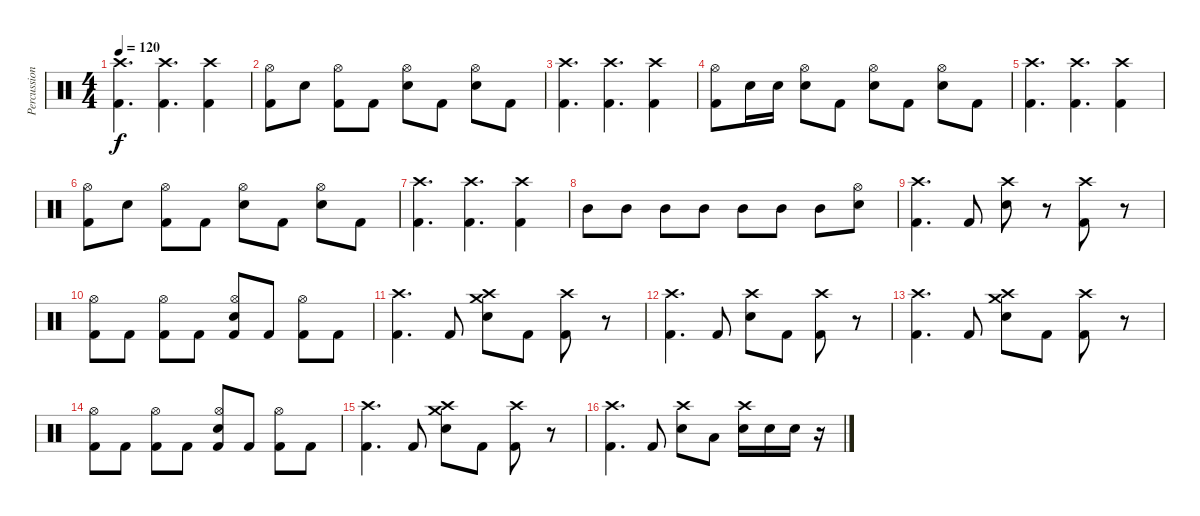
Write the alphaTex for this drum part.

\track ("Percussion" "Percussion") {instrument percussion}
\staff {score}
\articulation defaults
\ts (4 4)
\tempo 120
\clef neutral
\ks c
("Kick (hit) 2" "Crash high (hit)").4{d dy f} ("Kick (hit) 2" "Crash high (hit)").4{d} ("Kick (hit) 2" "Crash high (hit)").4 |
("Kick (hit) 2" "Hi-Hat (open)").8 "Electric Snare (hit)".8 ("Kick (hit) 2" "Hi-Hat (open)").8 "Kick (hit) 2".8 ("Electric Snare (hit)" "Hi-Hat (open)").8 "Kick (hit) 2".8 ("Electric Snare (hit)" "Hi-Hat (open)").8 "Kick (hit) 2".8 |
("Kick (hit) 2" "Crash high (hit)").4{d} ("Kick (hit) 2" "Crash high (hit)").4{d} ("Kick (hit) 2" "Crash high (hit)").4 |
("Kick (hit) 2" "Hi-Hat (open)").8 "Electric Snare (hit)".16 "Electric Snare (hit)".16 ("Electric Snare (hit)" "Hi-Hat (open)").8 "Kick (hit) 2".8 ("Electric Snare (hit)" "Hi-Hat (open)").8 "Kick (hit) 2".8 ("Electric Snare (hit)" "Hi-Hat (open)").8 "Kick (hit) 2".8 |
("Kick (hit) 2" "Crash high (hit)").4{d} ("Kick (hit) 2" "Crash high (hit)").4{d} ("Kick (hit) 2" "Crash high (hit)").4 |
("Kick (hit) 2" "Hi-Hat (open)").8 "Electric Snare (hit)".8 ("Kick (hit) 2" "Hi-Hat (open)").8 "Kick (hit) 2".8 ("Electric Snare (hit)" "Hi-Hat (open)").8 "Kick (hit) 2".8 ("Electric Snare (hit)" "Hi-Hat (open)").8 "Kick (hit) 2".8 |
("Kick (hit) 2" "Crash high (hit)").4{d} ("Kick (hit) 2" "Crash high (hit)").4{d} ("Kick (hit) 2" "Crash high (hit)").4 |
"Mid Tom (hit)".8 "Mid Tom (hit)".8 "Mid Tom (hit)".8 "Mid Tom (hit)".8 "Mid Tom (hit)".8 "Mid Tom (hit)".8 "Mid Tom (hit)".8 ("Electric Snare (hit)" "Hi-Hat (open)").8 |
("Kick (hit) 2" "Crash high (hit)").4{d} "Kick (hit) 2".8 ("Electric Snare (hit)" "Crash high (hit)").8 r.8 ("Kick (hit) 2" "Crash high (hit)").8 r.8 |
("Kick (hit) 2" "Hi-Hat (open)").8 "Kick (hit) 2".8 ("Kick (hit) 2" "Hi-Hat (open)").8 "Kick (hit) 2".8 ("Kick (hit) 2" "Electric Snare (hit)" "Hi-Hat (open)").8 "Kick (hit) 2".8 ("Kick (hit) 2" "Hi-Hat (open)").8 "Kick (hit) 2".8 |
("Kick (hit) 2" "Crash high (hit)").4{d} "Kick (hit) 2".8 ("Electric Snare (hit)" "Crash medium (hit)" "Crash high (hit)").8 "Kick (hit) 2".8 ("Kick (hit) 2" "Crash high (hit)").8 r.8 |
("Kick (hit) 2" "Crash high (hit)").4{d} "Kick (hit) 2".8 ("Electric Snare (hit)" "Crash high (hit)").8 "Kick (hit) 2".8 ("Kick (hit) 2" "Crash high (hit)").8 r.8 |
("Kick (hit) 2" "Crash high (hit)").4{d} "Kick (hit) 2".8 ("Electric Snare (hit)" "Crash medium (hit)" "Crash high (hit)").8 "Kick (hit) 2".8 ("Kick (hit) 2" "Crash high (hit)").8 r.8 |
("Kick (hit) 2" "Hi-Hat (open)").8 "Kick (hit) 2".8 ("Kick (hit) 2" "Hi-Hat (open)").8 "Kick (hit) 2".8 ("Kick (hit) 2" "Electric Snare (hit)" "Hi-Hat (open)").8 "Kick (hit) 2".8 ("Kick (hit) 2" "Hi-Hat (open)").8 "Kick (hit) 2".8 |
("Kick (hit) 2" "Crash high (hit)").4{d} "Kick (hit) 2".8 ("Electric Snare (hit)" "Crash medium (hit)" "Crash high (hit)").8 "Kick (hit) 2".8 ("Kick (hit) 2" "Crash high (hit)").8 r.8 |
("Kick (hit) 2" "Crash high (hit)").4{d} "Kick (hit) 2".8 ("Electric Snare (hit)" "Crash high (hit)").8 "Low Tom (hit)".8 ("Electric Snare (hit)" "Crash high (hit)").16 "Electric Snare (hit)".16 "Electric Snare (hit)".16 r.16
